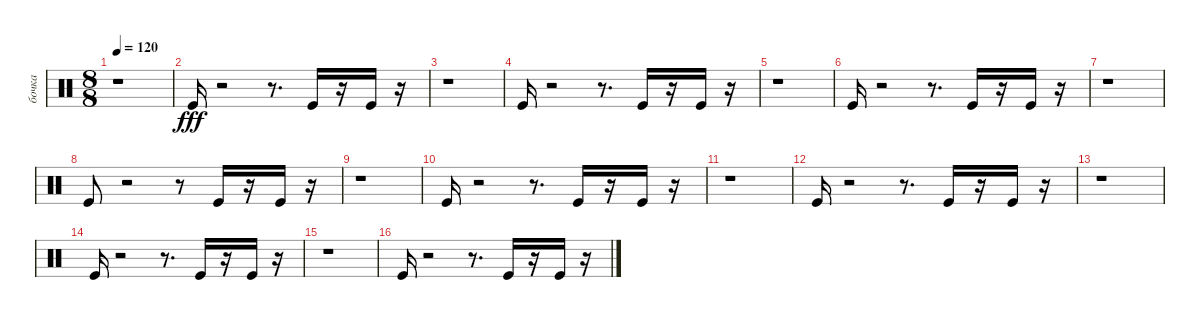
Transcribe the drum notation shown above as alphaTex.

\track ("бочка" "бочка") {instrument percussion}
\staff {score}
\articulation defaults
\ts (8 8)
\tempo 120
\clef neutral
\ks c
r.1{dy fff} |
"Kick (hit)".16 r.2 r.8{d} "Kick (hit)".16 r.16 "Kick (hit)".16 r.16 |
r.1 |
"Kick (hit)".16 r.2 r.8{d} "Kick (hit)".16 r.16 "Kick (hit)".16 r.16 |
r.1 |
"Kick (hit)".16 r.2 r.8{d} "Kick (hit)".16 r.16 "Kick (hit)".16 r.16 |
r.1 |
"Kick (hit)".8 r.2 r.8 "Kick (hit)".16 r.16 "Kick (hit)".16 r.16 |
r.1 |
"Kick (hit)".16 r.2 r.8{d} "Kick (hit)".16 r.16 "Kick (hit)".16 r.16 |
r.1 |
"Kick (hit)".16 r.2 r.8{d} "Kick (hit)".16 r.16 "Kick (hit)".16 r.16 |
r.1 |
"Kick (hit)".16 r.2 r.8{d} "Kick (hit)".16 r.16 "Kick (hit)".16 r.16 |
r.1 |
"Kick (hit)".16 r.2 r.8{d} "Kick (hit)".16 r.16 "Kick (hit)".16 r.16
